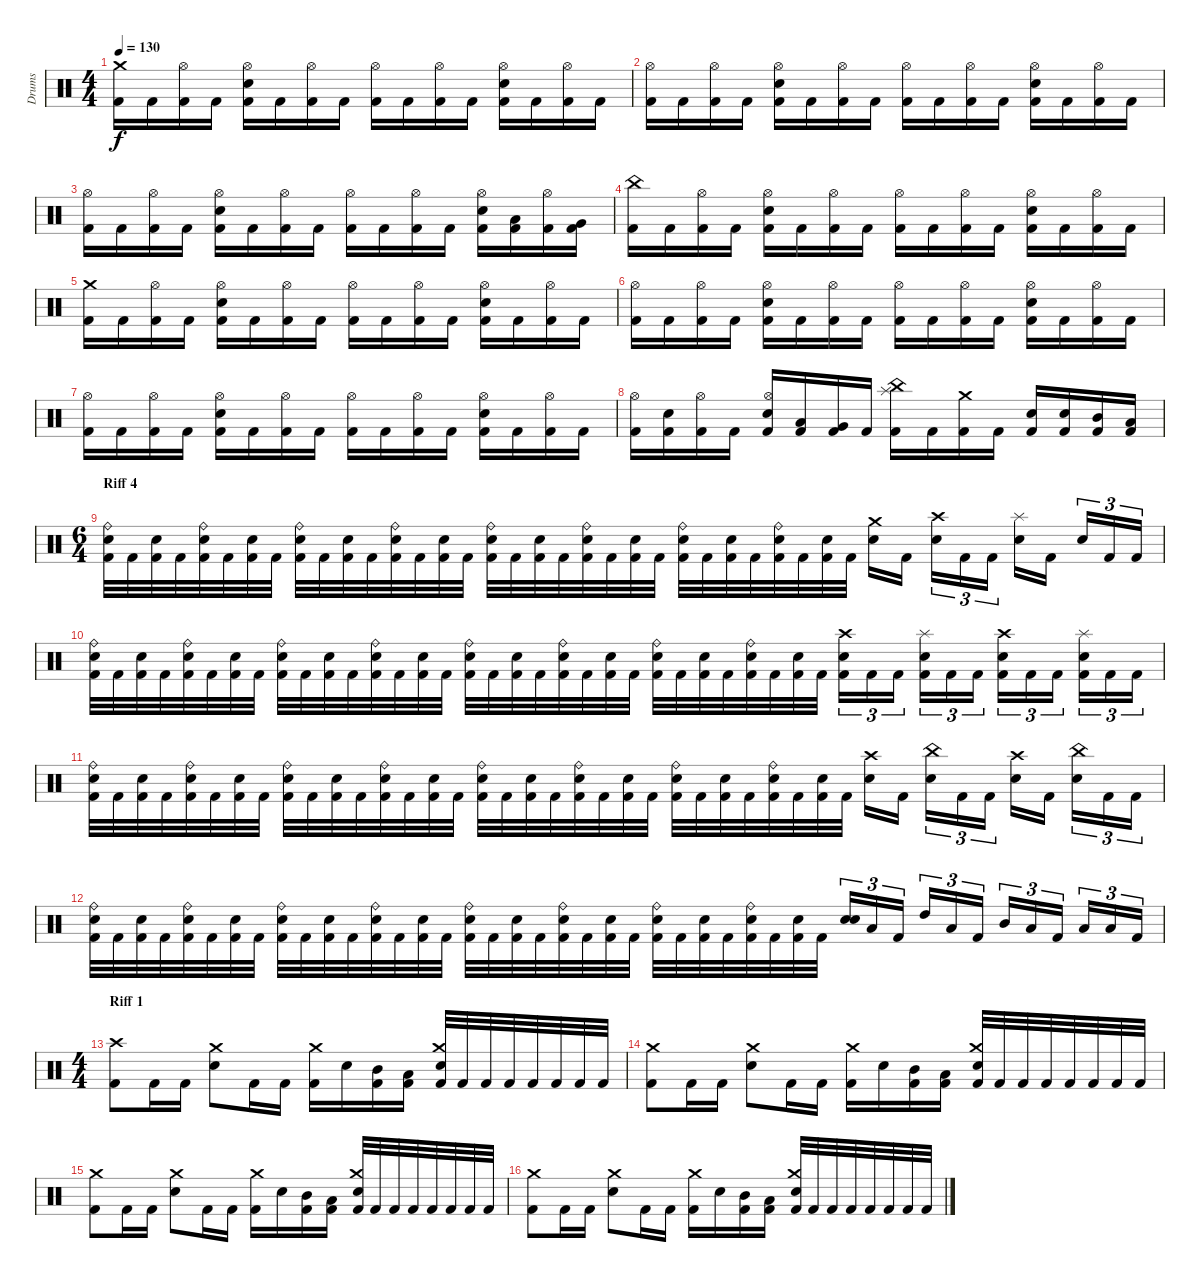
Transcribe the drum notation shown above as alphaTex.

\track ("Drums" "Drums") {instrument percussion}
\staff {score}
\articulation defaults
\ts (4 4)
\tempo 130
\clef neutral
\ks c
("Kick (hit) 2" "Crash medium (hit)").16{dy f} "Kick (hit) 2".16 ("Kick (hit) 2" "Hi-Hat (open)").16 "Kick (hit) 2".16 ("Kick (hit) 2" "Snare (hit) 2" "Hi-Hat (open)").16 "Kick (hit) 2".16 ("Kick (hit) 2" "Hi-Hat (open)").16 "Kick (hit) 2".16 ("Kick (hit) 2" "Hi-Hat (open)").16 "Kick (hit) 2".16 ("Kick (hit) 2" "Hi-Hat (open)").16 "Kick (hit) 2".16 ("Kick (hit) 2" "Snare (hit) 2" "Hi-Hat (open)").16 "Kick (hit) 2".16 ("Kick (hit) 2" "Hi-Hat (open)").16 "Kick (hit) 2".16 |
("Kick (hit) 2" "Hi-Hat (open)").16 "Kick (hit) 2".16 ("Kick (hit) 2" "Hi-Hat (open)").16 "Kick (hit) 2".16 ("Kick (hit) 2" "Snare (hit) 2" "Hi-Hat (open)").16 "Kick (hit) 2".16 ("Kick (hit) 2" "Hi-Hat (open)").16 "Kick (hit) 2".16 ("Kick (hit) 2" "Hi-Hat (open)").16 "Kick (hit) 2".16 ("Kick (hit) 2" "Hi-Hat (open)").16 "Kick (hit) 2".16 ("Kick (hit) 2" "Snare (hit) 2" "Hi-Hat (open)").16 "Kick (hit) 2".16 ("Kick (hit) 2" "Hi-Hat (open)").16 "Kick (hit) 2".16 |
("Kick (hit) 2" "Hi-Hat (open)").16 "Kick (hit) 2".16 ("Kick (hit) 2" "Hi-Hat (open)").16 "Kick (hit) 2".16 ("Kick (hit) 2" "Snare (hit) 2" "Hi-Hat (open)").16 "Kick (hit) 2".16 ("Kick (hit) 2" "Hi-Hat (open)").16 "Kick (hit) 2".16 ("Kick (hit) 2" "Hi-Hat (open)").16 "Kick (hit) 2".16 ("Kick (hit) 2" "Hi-Hat (open)").16 "Kick (hit) 2".16 ("Kick (hit) 2" "Snare (hit) 2" "Hi-Hat (open)").16 ("Kick (hit) 2" "Low Tom (hit)").16 ("Kick (hit) 2" "Hi-Hat (open)").16 ("Kick (hit) 2" "Very Low Tom (hit)").16 |
("Kick (hit) 2" "China (hit)").16 "Kick (hit) 2".16 ("Kick (hit) 2" "Hi-Hat (open)").16 "Kick (hit) 2".16 ("Kick (hit) 2" "Snare (hit) 2" "Hi-Hat (open)").16 "Kick (hit) 2".16 ("Kick (hit) 2" "Hi-Hat (open)").16 "Kick (hit) 2".16 ("Kick (hit) 2" "Hi-Hat (open)").16 "Kick (hit) 2".16 ("Kick (hit) 2" "Hi-Hat (open)").16 "Kick (hit) 2".16 ("Kick (hit) 2" "Snare (hit) 2" "Hi-Hat (open)").16 "Kick (hit) 2".16 ("Kick (hit) 2" "Hi-Hat (open)").16 "Kick (hit) 2".16 |
("Kick (hit) 2" "Crash medium (hit)").16 "Kick (hit) 2".16 ("Kick (hit) 2" "Hi-Hat (open)").16 "Kick (hit) 2".16 ("Kick (hit) 2" "Snare (hit) 2" "Hi-Hat (open)").16 "Kick (hit) 2".16 ("Kick (hit) 2" "Hi-Hat (open)").16 "Kick (hit) 2".16 ("Kick (hit) 2" "Hi-Hat (open)").16 "Kick (hit) 2".16 ("Kick (hit) 2" "Hi-Hat (open)").16 "Kick (hit) 2".16 ("Kick (hit) 2" "Snare (hit) 2" "Hi-Hat (open)").16 "Kick (hit) 2".16 ("Kick (hit) 2" "Hi-Hat (open)").16 "Kick (hit) 2".16 |
("Kick (hit) 2" "Hi-Hat (open)").16 "Kick (hit) 2".16 ("Kick (hit) 2" "Hi-Hat (open)").16 "Kick (hit) 2".16 ("Kick (hit) 2" "Snare (hit) 2" "Hi-Hat (open)").16 "Kick (hit) 2".16 ("Kick (hit) 2" "Hi-Hat (open)").16 "Kick (hit) 2".16 ("Kick (hit) 2" "Hi-Hat (open)").16 "Kick (hit) 2".16 ("Kick (hit) 2" "Hi-Hat (open)").16 "Kick (hit) 2".16 ("Kick (hit) 2" "Snare (hit) 2" "Hi-Hat (open)").16 "Kick (hit) 2".16 ("Kick (hit) 2" "Hi-Hat (open)").16 "Kick (hit) 2".16 |
("Kick (hit) 2" "Hi-Hat (open)").16 "Kick (hit) 2".16 ("Kick (hit) 2" "Hi-Hat (open)").16 "Kick (hit) 2".16 ("Kick (hit) 2" "Snare (hit) 2" "Hi-Hat (open)").16 "Kick (hit) 2".16 ("Kick (hit) 2" "Hi-Hat (open)").16 "Kick (hit) 2".16 ("Kick (hit) 2" "Hi-Hat (open)").16 "Kick (hit) 2".16 ("Kick (hit) 2" "Hi-Hat (open)").16 "Kick (hit) 2".16 ("Kick (hit) 2" "Snare (hit) 2" "Hi-Hat (open)").16 "Kick (hit) 2".16 ("Kick (hit) 2" "Hi-Hat (open)").16 "Kick (hit) 2".16 |
("Kick (hit) 2" "Hi-Hat (open)").16 ("Kick (hit) 2" "Snare (hit) 2").16 ("Kick (hit) 2" "Hi-Hat (open)").16 "Kick (hit) 2".16 ("Kick (hit) 2" "Snare (hit) 2" "Hi-Hat (open)").16 ("Kick (hit) 2" "Low Tom (hit)").16 ("Kick (hit) 2" "Very Low Tom (hit)").16 "Kick (hit) 2".16 ("Kick (hit) 2" "China (hit)" "Splash (hit)").16 "Kick (hit) 2".16 ("Kick (hit) 2" "Crash medium (hit)").16 "Kick (hit) 2".16 ("Kick (hit) 2" "Snare (hit) 2").16 ("Kick (hit) 2" "Snare (hit) 2").16 ("Kick (hit) 2" "Mid Tom (hit)").16 ("Kick (hit) 2" "Low Tom (hit)").16 |
\ts (6 4)
\section ("" "Riff 4")
("Kick (hit) 2" "Snare (hit) 2" "Ride (bell)").32 "Kick (hit) 2".32 ("Kick (hit) 2" "Snare (hit) 2").32 "Kick (hit) 2".32 ("Kick (hit) 2" "Snare (hit) 2" "Ride (bell)").32 "Kick (hit) 2".32 ("Kick (hit) 2" "Snare (hit) 2").32 "Kick (hit) 2".32 ("Kick (hit) 2" "Snare (hit) 2" "Ride (bell)").32 "Kick (hit) 2".32 ("Kick (hit) 2" "Snare (hit) 2").32 "Kick (hit) 2".32 ("Kick (hit) 2" "Snare (hit) 2" "Ride (bell)").32 "Kick (hit) 2".32 ("Kick (hit) 2" "Snare (hit) 2").32 "Kick (hit) 2".32 ("Kick (hit) 2" "Snare (hit) 2" "Ride (bell)").32 "Kick (hit) 2".32 ("Kick (hit) 2" "Snare (hit) 2").32 "Kick (hit) 2".32 ("Kick (hit) 2" "Snare (hit) 2" "Ride (bell)").32 "Kick (hit) 2".32 ("Kick (hit) 2" "Snare (hit) 2").32 "Kick (hit) 2".32 ("Kick (hit) 2" "Snare (hit) 2" "Ride (bell)").32 "Kick (hit) 2".32 ("Kick (hit) 2" "Snare (hit) 2").32 "Kick (hit) 2".32 ("Kick (hit) 2" "Snare (hit) 2" "Ride (bell)").32 "Kick (hit) 2".32 ("Kick (hit) 2" "Snare (hit) 2").32 "Kick (hit) 2".32 ("Snare (hit) 2" "Crash medium (hit)").16 "Kick (hit) 2".16 ("Snare (hit) 2" "Crash high (hit)").16{tu (3 2)} "Kick (hit) 2".16{tu (3 2)} "Kick (hit) 2".16{tu (3 2)} ("Snare (hit) 2" "Splash (hit)").16 "Kick (hit) 2".16 "Snare (hit) 2".16{tu (3 2)} "Kick (hit) 2".16{tu (3 2)} "Kick (hit) 2".16{tu (3 2)} |
("Kick (hit) 2" "Snare (hit) 2" "Ride (bell)").32 "Kick (hit) 2".32 ("Kick (hit) 2" "Snare (hit) 2").32 "Kick (hit) 2".32 ("Kick (hit) 2" "Snare (hit) 2" "Ride (bell)").32 "Kick (hit) 2".32 ("Kick (hit) 2" "Snare (hit) 2").32 "Kick (hit) 2".32 ("Kick (hit) 2" "Snare (hit) 2" "Ride (bell)").32 "Kick (hit) 2".32 ("Kick (hit) 2" "Snare (hit) 2").32 "Kick (hit) 2".32 ("Kick (hit) 2" "Snare (hit) 2" "Ride (bell)").32 "Kick (hit) 2".32 ("Kick (hit) 2" "Snare (hit) 2").32 "Kick (hit) 2".32 ("Kick (hit) 2" "Snare (hit) 2" "Ride (bell)").32 "Kick (hit) 2".32 ("Kick (hit) 2" "Snare (hit) 2").32 "Kick (hit) 2".32 ("Kick (hit) 2" "Snare (hit) 2" "Ride (bell)").32 "Kick (hit) 2".32 ("Kick (hit) 2" "Snare (hit) 2").32 "Kick (hit) 2".32 ("Kick (hit) 2" "Snare (hit) 2" "Ride (bell)").32 "Kick (hit) 2".32 ("Kick (hit) 2" "Snare (hit) 2").32 "Kick (hit) 2".32 ("Kick (hit) 2" "Snare (hit) 2" "Ride (bell)").32 "Kick (hit) 2".32 ("Kick (hit) 2" "Snare (hit) 2").32 "Kick (hit) 2".32 ("Kick (hit) 2" "Snare (hit) 2" "Crash high (hit)").16{tu (3 2)} "Kick (hit) 2".16{tu (3 2)} "Kick (hit) 2".16{tu (3 2)} ("Kick (hit) 2" "Snare (hit) 2" "Splash (hit)").16{tu (3 2)} "Kick (hit) 2".16{tu (3 2)} "Kick (hit) 2".16{tu (3 2)} ("Kick (hit) 2" "Snare (hit) 2" "Crash high (hit)").16{tu (3 2)} "Kick (hit) 2".16{tu (3 2)} "Kick (hit) 2".16{tu (3 2)} ("Kick (hit) 2" "Snare (hit) 2" "Splash (hit)").16{tu (3 2)} "Kick (hit) 2".16{tu (3 2)} "Kick (hit) 2".16{tu (3 2)} |
("Kick (hit) 2" "Snare (hit) 2" "Ride (bell)").32 "Kick (hit) 2".32 ("Kick (hit) 2" "Snare (hit) 2").32 "Kick (hit) 2".32 ("Kick (hit) 2" "Snare (hit) 2" "Ride (bell)").32 "Kick (hit) 2".32 ("Kick (hit) 2" "Snare (hit) 2").32 "Kick (hit) 2".32 ("Kick (hit) 2" "Snare (hit) 2" "Ride (bell)").32 "Kick (hit) 2".32 ("Kick (hit) 2" "Snare (hit) 2").32 "Kick (hit) 2".32 ("Kick (hit) 2" "Snare (hit) 2" "Ride (bell)").32 "Kick (hit) 2".32 ("Kick (hit) 2" "Snare (hit) 2").32 "Kick (hit) 2".32 ("Kick (hit) 2" "Snare (hit) 2" "Ride (bell)").32 "Kick (hit) 2".32 ("Kick (hit) 2" "Snare (hit) 2").32 "Kick (hit) 2".32 ("Kick (hit) 2" "Snare (hit) 2" "Ride (bell)").32 "Kick (hit) 2".32 ("Kick (hit) 2" "Snare (hit) 2").32 "Kick (hit) 2".32 ("Kick (hit) 2" "Snare (hit) 2" "Ride (bell)").32 "Kick (hit) 2".32 ("Kick (hit) 2" "Snare (hit) 2").32 "Kick (hit) 2".32 ("Kick (hit) 2" "Snare (hit) 2" "Ride (bell)").32 "Kick (hit) 2".32 ("Kick (hit) 2" "Snare (hit) 2").32 "Kick (hit) 2".32 ("Snare (hit) 2" "Crash high (hit)").16 "Kick (hit) 2".16 ("Snare (hit) 2" "China (hit)").16{tu (3 2)} "Kick (hit) 2".16{tu (3 2)} "Kick (hit) 2".16{tu (3 2)} ("Snare (hit) 2" "Crash high (hit)").16 "Kick (hit) 2".16 ("Snare (hit) 2" "China (hit)").16{tu (3 2)} "Kick (hit) 2".16{tu (3 2)} "Kick (hit) 2".16{tu (3 2)} |
("Kick (hit) 2" "Snare (hit) 2" "Ride (bell)").32 "Kick (hit) 2".32 ("Kick (hit) 2" "Snare (hit) 2").32 "Kick (hit) 2".32 ("Kick (hit) 2" "Snare (hit) 2" "Ride (bell)").32 "Kick (hit) 2".32 ("Kick (hit) 2" "Snare (hit) 2").32 "Kick (hit) 2".32 ("Kick (hit) 2" "Snare (hit) 2" "Ride (bell)").32 "Kick (hit) 2".32 ("Kick (hit) 2" "Snare (hit) 2").32 "Kick (hit) 2".32 ("Kick (hit) 2" "Snare (hit) 2" "Ride (bell)").32 "Kick (hit) 2".32 ("Kick (hit) 2" "Snare (hit) 2").32 "Kick (hit) 2".32 ("Kick (hit) 2" "Snare (hit) 2" "Ride (bell)").32 "Kick (hit) 2".32 ("Kick (hit) 2" "Snare (hit) 2").32 "Kick (hit) 2".32 ("Kick (hit) 2" "Snare (hit) 2" "Ride (bell)").32 "Kick (hit) 2".32 ("Kick (hit) 2" "Snare (hit) 2").32 "Kick (hit) 2".32 ("Kick (hit) 2" "Snare (hit) 2" "Ride (bell)").32 "Kick (hit) 2".32 ("Kick (hit) 2" "Snare (hit) 2").32 "Kick (hit) 2".32 ("Kick (hit) 2" "Snare (hit) 2" "Ride (bell)").32 "Kick (hit) 2".32 ("Kick (hit) 2" "Snare (hit) 2").32 "Kick (hit) 2".32 ("Snare (hit) 2" "Electric Snare (hit)").16{tu (3 2)} "Low Floor Tom (hit)".16{tu (3 2)} "Kick (hit) 2".16{tu (3 2)} "High Tom (hit)".16{tu (3 2)} "Low Floor Tom (hit)".16{tu (3 2)} "Kick (hit) 2".16{tu (3 2)} "Mid Tom (hit)".16{tu (3 2)} "Low Floor Tom (hit)".16{tu (3 2)} "Kick (hit) 2".16{tu (3 2)} "Low Tom (hit)".16{tu (3 2)} "Low Floor Tom (hit)".16{tu (3 2)} "Kick (hit) 2".16{tu (3 2)} |
\ts (4 4)
\section ("" "Riff 1")
("Kick (hit) 2" "Crash high (hit)").8 "Kick (hit) 2".16 "Kick (hit) 2".16 ("Snare (hit) 2" "Crash medium (hit)").8 "Kick (hit) 2".16 "Kick (hit) 2".16 ("Kick (hit) 2" "Crash medium (hit)").16 "Snare (hit) 2".16 ("Kick (hit) 2" "Mid Tom (hit)").16 ("Kick (hit) 2" "Low Tom (hit)").16 ("Kick (hit) 2" "Snare (hit) 2" "Crash medium (hit)").32 "Kick (hit) 2".32 "Kick (hit) 2".32 "Kick (hit) 2".32 "Kick (hit) 2".32 "Kick (hit) 2".32 "Kick (hit) 2".32 "Kick (hit) 2".32 |
("Kick (hit) 2" "Crash medium (hit)").8 "Kick (hit) 2".16 "Kick (hit) 2".16 ("Snare (hit) 2" "Crash medium (hit)").8 "Kick (hit) 2".16 "Kick (hit) 2".16 ("Kick (hit) 2" "Crash medium (hit)").16 "Snare (hit) 2".16 ("Kick (hit) 2" "Mid Tom (hit)").16 ("Kick (hit) 2" "Low Tom (hit)").16 ("Kick (hit) 2" "Snare (hit) 2" "Crash medium (hit)").32 "Kick (hit) 2".32 "Kick (hit) 2".32 "Kick (hit) 2".32 "Kick (hit) 2".32 "Kick (hit) 2".32 "Kick (hit) 2".32 "Kick (hit) 2".32 |
("Kick (hit) 2" "Crash medium (hit)").8 "Kick (hit) 2".16 "Kick (hit) 2".16 ("Snare (hit) 2" "Crash medium (hit)").8 "Kick (hit) 2".16 "Kick (hit) 2".16 ("Kick (hit) 2" "Crash medium (hit)").16 "Snare (hit) 2".16 ("Kick (hit) 2" "Mid Tom (hit)").16 ("Kick (hit) 2" "Low Tom (hit)").16 ("Kick (hit) 2" "Snare (hit) 2" "Crash medium (hit)").32 "Kick (hit) 2".32 "Kick (hit) 2".32 "Kick (hit) 2".32 "Kick (hit) 2".32 "Kick (hit) 2".32 "Kick (hit) 2".32 "Kick (hit) 2".32 |
("Kick (hit) 2" "Crash medium (hit)").8 "Kick (hit) 2".16 "Kick (hit) 2".16 ("Snare (hit) 2" "Crash medium (hit)").8 "Kick (hit) 2".16 "Kick (hit) 2".16 ("Kick (hit) 2" "Crash medium (hit)").16 "Snare (hit) 2".16 ("Kick (hit) 2" "Mid Tom (hit)").16 ("Kick (hit) 2" "Low Tom (hit)").16 ("Kick (hit) 2" "Snare (hit) 2" "Crash medium (hit)").32 "Kick (hit) 2".32 "Kick (hit) 2".32 "Kick (hit) 2".32 "Kick (hit) 2".32 "Kick (hit) 2".32 "Kick (hit) 2".32 "Kick (hit) 2".32
